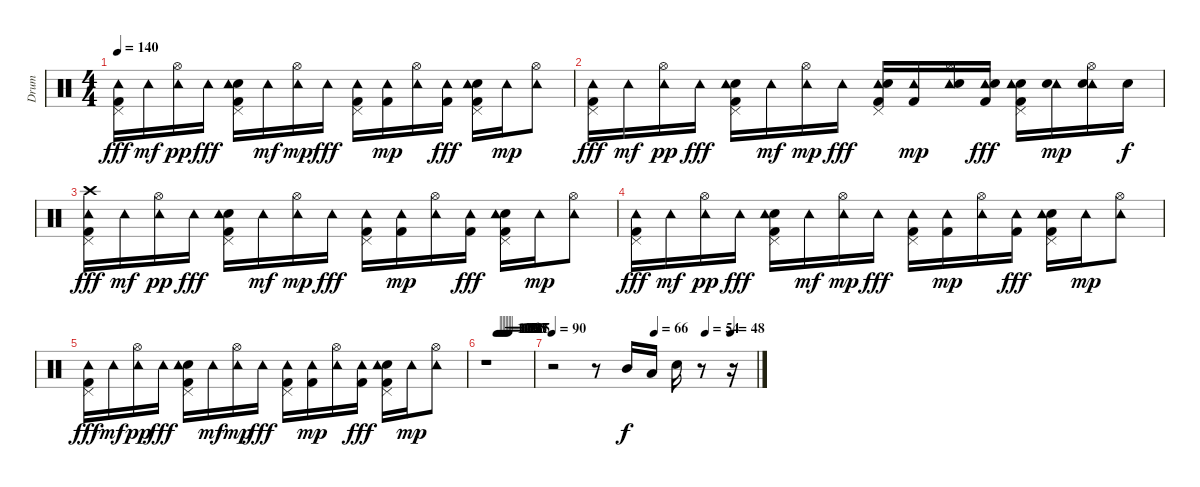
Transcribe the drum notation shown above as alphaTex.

\track ("Drum" "Drum") {instrument percussion}
\staff {score}
\articulation defaults
\ts (4 4)
\tempo 140
\clef neutral
\ks c
("Tambourine (hit)" "Kick (hit) 2" "Pedal Hi-Hat (hit)").16{dy fff} "Tambourine (hit)".16{dy mf} ("Hi-Hat (open)" "Tambourine (hit)").16{dy pp} "Tambourine (hit)".16{dy fff} ("Snare (hit) 2" "Tambourine (hit)" "Kick (hit) 2" "Pedal Hi-Hat (hit)").16 "Tambourine (hit)".16{dy mf} ("Hi-Hat (open)" "Tambourine (hit)").16{dy mp} "Tambourine (hit)".16{dy fff} ("Tambourine (hit)" "Kick (hit) 2" "Pedal Hi-Hat (hit)").16 ("Kick (hit) 2" "Tambourine (hit)").16{dy mp} ("Hi-Hat (open)" "Tambourine (hit)").16 ("Kick (hit) 2" "Tambourine (hit)").16{dy fff} ("Snare (hit) 2" "Tambourine (hit)" "Kick (hit) 2" "Pedal Hi-Hat (hit)").16 "Tambourine (hit)".16{dy mp} ("Hi-Hat (open)" "Tambourine (hit)").8 |
("Tambourine (hit)" "Kick (hit) 2" "Pedal Hi-Hat (hit)").16{dy fff} "Tambourine (hit)".16{dy mf} ("Hi-Hat (open)" "Tambourine (hit)").16{dy pp} "Tambourine (hit)".16{dy fff} ("Snare (hit) 2" "Tambourine (hit)" "Kick (hit) 2" "Pedal Hi-Hat (hit)").16 "Tambourine (hit)".16{dy mf} ("Hi-Hat (open)" "Tambourine (hit)").16{dy mp} "Tambourine (hit)".16{dy fff} ("Tambourine (hit)" "Kick (hit) 2" "Pedal Hi-Hat (hit)" "Snare (hit) 2").16 ("Kick (hit) 2" "Tambourine (hit)").16{dy mp} ("Hi-Hat (open)" "Tambourine (hit)" "Snare (hit) 2").16 ("Kick (hit) 2" "Tambourine (hit)" "Snare (hit) 2").16{dy fff} ("Snare (hit) 2" "Tambourine (hit)" "Kick (hit) 2" "Pedal Hi-Hat (hit)").16 ("Tambourine (hit)" "Snare (hit) 2").16{dy mp} ("Hi-Hat (open)" "Tambourine (hit)" "Snare (hit) 2").16 "Snare (hit) 2".16{dy f} |
("Tambourine (hit)" "Kick (hit) 2" "Pedal Hi-Hat (hit)" "Crash high (hit)").16{dy fff} "Tambourine (hit)".16{dy mf} ("Hi-Hat (open)" "Tambourine (hit)").16{dy pp} "Tambourine (hit)".16{dy fff} ("Snare (hit) 2" "Tambourine (hit)" "Kick (hit) 2" "Pedal Hi-Hat (hit)").16 "Tambourine (hit)".16{dy mf} ("Hi-Hat (open)" "Tambourine (hit)").16{dy mp} "Tambourine (hit)".16{dy fff} ("Tambourine (hit)" "Kick (hit) 2" "Pedal Hi-Hat (hit)").16 ("Kick (hit) 2" "Tambourine (hit)").16{dy mp} ("Hi-Hat (open)" "Tambourine (hit)").16 ("Kick (hit) 2" "Tambourine (hit)").16{dy fff} ("Snare (hit) 2" "Tambourine (hit)" "Kick (hit) 2" "Pedal Hi-Hat (hit)").16 "Tambourine (hit)".16{dy mp} ("Hi-Hat (open)" "Tambourine (hit)").8 |
("Tambourine (hit)" "Kick (hit) 2" "Pedal Hi-Hat (hit)").16{dy fff} "Tambourine (hit)".16{dy mf} ("Hi-Hat (open)" "Tambourine (hit)").16{dy pp} "Tambourine (hit)".16{dy fff} ("Snare (hit) 2" "Tambourine (hit)" "Kick (hit) 2" "Pedal Hi-Hat (hit)").16 "Tambourine (hit)".16{dy mf} ("Hi-Hat (open)" "Tambourine (hit)").16{dy mp} "Tambourine (hit)".16{dy fff} ("Tambourine (hit)" "Kick (hit) 2" "Pedal Hi-Hat (hit)").16 ("Kick (hit) 2" "Tambourine (hit)").16{dy mp} ("Hi-Hat (open)" "Tambourine (hit)").16 ("Kick (hit) 2" "Tambourine (hit)").16{dy fff} ("Snare (hit) 2" "Tambourine (hit)" "Kick (hit) 2" "Pedal Hi-Hat (hit)").16 "Tambourine (hit)".16{dy mp} ("Hi-Hat (open)" "Tambourine (hit)").8 |
("Tambourine (hit)" "Kick (hit) 2" "Pedal Hi-Hat (hit)").16{dy fff} "Tambourine (hit)".16{dy mf} ("Hi-Hat (open)" "Tambourine (hit)").16{dy pp} "Tambourine (hit)".16{dy fff} ("Snare (hit) 2" "Tambourine (hit)" "Kick (hit) 2" "Pedal Hi-Hat (hit)").16 "Tambourine (hit)".16{dy mf} ("Hi-Hat (open)" "Tambourine (hit)").16{dy mp} "Tambourine (hit)".16{dy fff} ("Tambourine (hit)" "Kick (hit) 2" "Pedal Hi-Hat (hit)").16 ("Kick (hit) 2" "Tambourine (hit)").16{dy mp} ("Hi-Hat (open)" "Tambourine (hit)").16 ("Kick (hit) 2" "Tambourine (hit)").16{dy fff} ("Snare (hit) 2" "Tambourine (hit)" "Kick (hit) 2" "Pedal Hi-Hat (hit)").16 "Tambourine (hit)".16{dy mp} ("Hi-Hat (open)" "Tambourine (hit)").8 |
\tempo (127 0.25)
\tempo (126 0.28125)
\tempo (124 0.3125)
\tempo (123 0.34375)
\tempo (121 0.375)
\tempo (120 0.40625)
\tempo (118 0.4375)
\tempo (117 0.46875)
\tempo (115 0.5)
r.1 |
\tempo 90
\tempo (66 0.5)
\tempo (54 0.75)
\tempo (48 0.875)
r.2 r.8 "Mid Tom (hit)".16{dy f} "Low Tom (hit)".16 "Snare (hit) 2".16 r.8 r.16
